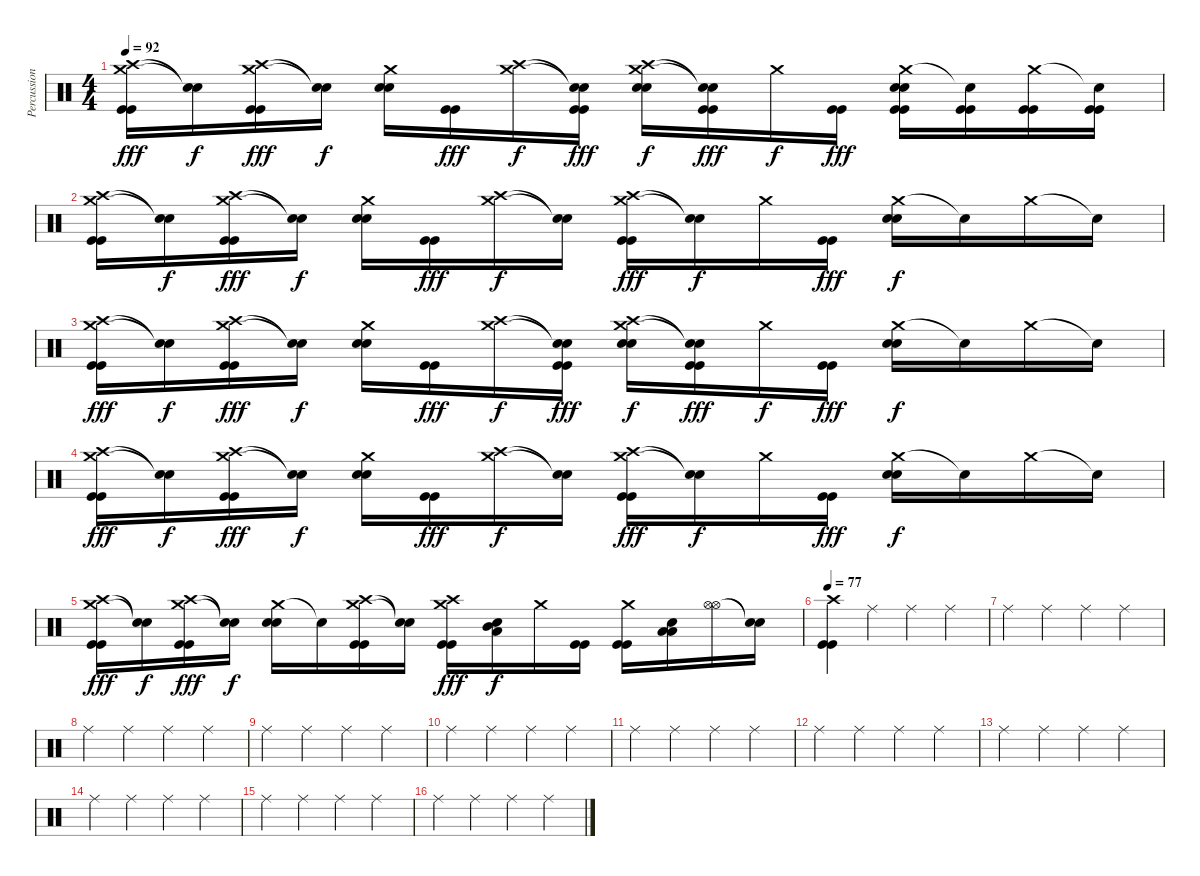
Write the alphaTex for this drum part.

\track ("Percussions" "Percussion") {instrument percussion}
\staff {score}
\articulation defaults
\ts (4 4)
\tempo 92
\clef neutral
\ks c
("Crash medium (hit)" "Crash high (hit)" "Kick (hit)" "Kick (hit)").16{dy fff} ("Snare (hit)"{t} "Snare (hit)"{t}).16{dy f} ("Crash medium (hit)" "Crash high (hit)" "Kick (hit)" "Kick (hit)").16{dy fff} ("Snare (hit)"{t} "Snare (hit)"{t}).16{dy f} ("Crash medium (hit)" "Electric Snare (hit)" "Electric Snare (hit)").16 ("Kick (hit)" "Kick (hit)").16{dy fff} ("Crash medium (hit)" "Crash high (hit)").16{dy f} ("Snare (hit)"{t} "Snare (hit)"{t} "Kick (hit)" "Kick (hit)").16{dy fff} ("Crash medium (hit)" "Crash high (hit)" "Electric Snare (hit)" "Electric Snare (hit)").16{dy f} ("Snare (hit)"{t} "Snare (hit)"{t} "Kick (hit)" "Kick (hit)").16{dy fff} "Crash medium (hit)".16{dy f} ("Kick (hit)" "Kick (hit)").16{dy fff} ("Crash medium (hit)" "Electric Snare (hit)" "Electric Snare (hit)" "Kick (hit)" "Kick (hit)").16 ("Snare (hit)"{t} "Kick (hit)" "Kick (hit)").16 ("Crash medium (hit)" "Kick (hit)" "Kick (hit)").16 ("Snare (hit)"{t} "Kick (hit)" "Kick (hit)").16 |
("Crash medium (hit)" "Crash high (hit)" "Kick (hit)" "Kick (hit)").16 ("Snare (hit)"{t} "Snare (hit)"{t}).16{dy f} ("Crash medium (hit)" "Crash high (hit)" "Kick (hit)" "Kick (hit)").16{dy fff} ("Snare (hit)"{t} "Snare (hit)"{t}).16{dy f} ("Crash medium (hit)" "Electric Snare (hit)" "Electric Snare (hit)").16 ("Kick (hit)" "Kick (hit)").16{dy fff} ("Crash medium (hit)" "Crash high (hit)").16{dy f} ("Snare (hit)"{t} "Snare (hit)"{t}).16 ("Crash medium (hit)" "Crash high (hit)" "Kick (hit)" "Kick (hit)").16{dy fff} ("Snare (hit)"{t} "Snare (hit)"{t}).16{dy f} "Crash medium (hit)".16 ("Kick (hit)" "Kick (hit)").16{dy fff} ("Crash medium (hit)" "Electric Snare (hit)" "Electric Snare (hit)").16{dy f} "Snare (hit)"{t}.16 "Crash medium (hit)".16 "Snare (hit)"{t}.16 |
("Crash medium (hit)" "Crash high (hit)" "Kick (hit)" "Kick (hit)").16{dy fff} ("Snare (hit)"{t} "Snare (hit)"{t}).16{dy f} ("Crash medium (hit)" "Crash high (hit)" "Kick (hit)" "Kick (hit)").16{dy fff} ("Snare (hit)"{t} "Snare (hit)"{t}).16{dy f} ("Crash medium (hit)" "Electric Snare (hit)" "Electric Snare (hit)").16 ("Kick (hit)" "Kick (hit)").16{dy fff} ("Crash medium (hit)" "Crash high (hit)").16{dy f} ("Snare (hit)"{t} "Snare (hit)"{t} "Kick (hit)" "Kick (hit)").16{dy fff} ("Crash medium (hit)" "Crash high (hit)" "Electric Snare (hit)" "Electric Snare (hit)").16{dy f} ("Snare (hit)"{t} "Snare (hit)"{t} "Kick (hit)" "Kick (hit)").16{dy fff} "Crash medium (hit)".16{dy f} ("Kick (hit)" "Kick (hit)").16{dy fff} ("Crash medium (hit)" "Electric Snare (hit)" "Electric Snare (hit)").16{dy f} "Snare (hit)"{t}.16 "Crash medium (hit)".16 "Snare (hit)"{t}.16 |
("Crash medium (hit)" "Crash high (hit)" "Kick (hit)" "Kick (hit)").16{dy fff} ("Snare (hit)"{t} "Snare (hit)"{t}).16{dy f} ("Crash medium (hit)" "Crash high (hit)" "Kick (hit)" "Kick (hit)").16{dy fff} ("Snare (hit)"{t} "Snare (hit)"{t}).16{dy f} ("Crash medium (hit)" "Electric Snare (hit)" "Electric Snare (hit)").16 ("Kick (hit)" "Kick (hit)").16{dy fff} ("Crash medium (hit)" "Crash high (hit)").16{dy f} ("Snare (hit)"{t} "Snare (hit)"{t}).16 ("Crash medium (hit)" "Crash high (hit)" "Kick (hit)" "Kick (hit)").16{dy fff} ("Snare (hit)"{t} "Snare (hit)"{t}).16{dy f} "Crash medium (hit)".16 ("Kick (hit)" "Kick (hit)").16{dy fff} ("Crash medium (hit)" "Electric Snare (hit)" "Electric Snare (hit)").16{dy f} "Snare (hit)"{t}.16 "Crash medium (hit)".16 "Snare (hit)"{t}.16 |
("Crash medium (hit)" "Crash high (hit)" "Kick (hit)" "Kick (hit)").16{dy fff} ("Snare (hit)"{t} "Snare (hit)"{t}).16{dy f} ("Crash medium (hit)" "Crash high (hit)" "Kick (hit)" "Kick (hit)").16{dy fff} ("Snare (hit)"{t} "Snare (hit)"{t}).16{dy f} ("Crash medium (hit)" "Electric Snare (hit)" "Electric Snare (hit)").16 "Snare (hit)"{t}.16 ("Crash medium (hit)" "Crash high (hit)" "Kick (hit)" "Kick (hit)").16 ("Snare (hit)"{t} "Snare (hit)"{t}).16 ("Crash medium (hit)" "Crash high (hit)" "Kick (hit)" "Kick (hit)").16{dy fff} ("Mid Tom (hit)" "Low Floor Tom (hit)" "Electric Snare (hit)").16{dy f} "Crash medium (hit)".16 ("Kick (hit)" "Kick (hit)").16 ("Crash medium (hit)" "Kick (hit)" "Kick (hit)").16 ("Low Floor Tom (hit)" "Low Floor Tom (hit)" "Electric Snare (hit)").16 ("Hi-Hat (open)" "Hi-Hat (open)").16 ("Snare (hit)"{t} "Snare (hit)"{t}).16 |
\tempo 77
("Crash high (hit)" "Kick (hit)" "Kick (hit)").4 "Ride (middle)".4 "Ride (middle)".4 "Ride (middle)".4 |
"Ride (middle)".4 "Ride (middle)".4 "Ride (middle)".4 "Ride (middle)".4 |
"Ride (middle)".4 "Ride (middle)".4 "Ride (middle)".4 "Ride (middle)".4 |
"Ride (middle)".4 "Ride (middle)".4 "Ride (middle)".4 "Ride (middle)".4 |
"Ride (middle)".4 "Ride (middle)".4 "Ride (middle)".4 "Ride (middle)".4 |
"Ride (middle)".4 "Ride (middle)".4 "Ride (middle)".4 "Ride (middle)".4 |
"Ride (middle)".4 "Ride (middle)".4 "Ride (middle)".4 "Ride (middle)".4 |
"Ride (middle)".4 "Ride (middle)".4 "Ride (middle)".4 "Ride (middle)".4 |
"Ride (middle)".4 "Ride (middle)".4 "Ride (middle)".4 "Ride (middle)".4 |
"Ride (middle)".4 "Ride (middle)".4 "Ride (middle)".4 "Ride (middle)".4 |
"Ride (middle)".4 "Ride (middle)".4 "Ride (middle)".4 "Ride (middle)".4
